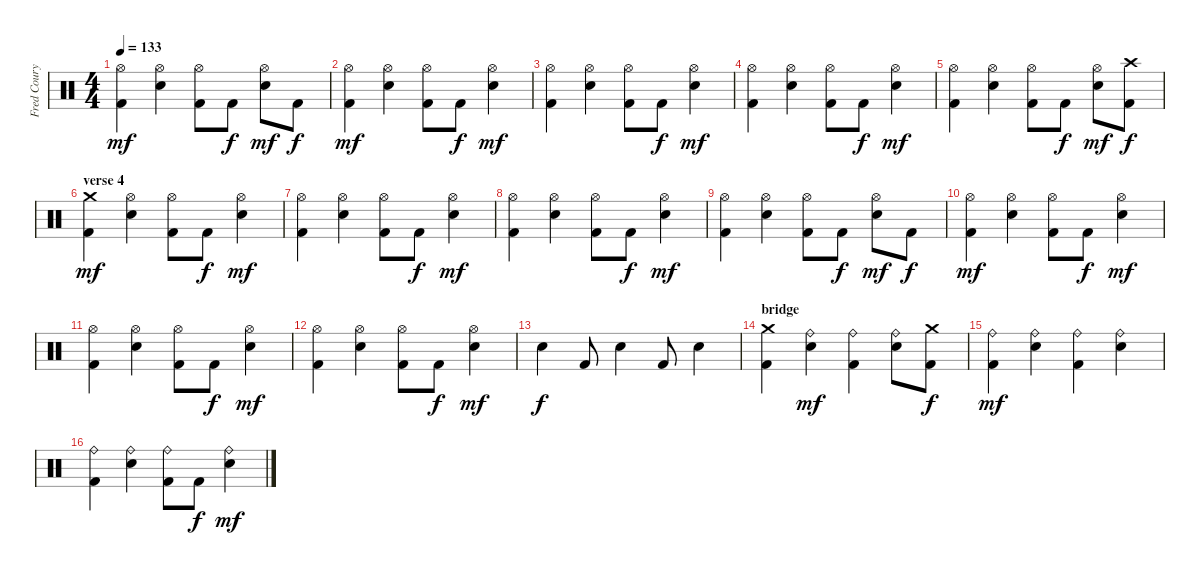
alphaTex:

\track ("Fred Coury" "Fred Coury") {instrument percussion}
\staff {score}
\articulation defaults
\ts (4 4)
\tempo 133
\clef neutral
\ks c
("Kick (hit) 2" "Hi-Hat (open)").4{dy mf} ("Hi-Hat (open)" "Snare (hit) 2").4 ("Kick (hit) 2" "Hi-Hat (open)").8 "Kick (hit) 2".8{dy f} ("Hi-Hat (open)" "Snare (hit) 2").8{dy mf} "Kick (hit) 2".8{dy f} |
("Kick (hit) 2" "Hi-Hat (open)").4{dy mf} ("Hi-Hat (open)" "Snare (hit) 2").4 ("Kick (hit) 2" "Hi-Hat (open)").8 "Kick (hit) 2".8{dy f} ("Hi-Hat (open)" "Snare (hit) 2").4{dy mf} |
("Kick (hit) 2" "Hi-Hat (open)").4 ("Hi-Hat (open)" "Snare (hit) 2").4 ("Kick (hit) 2" "Hi-Hat (open)").8 "Kick (hit) 2".8{dy f} ("Hi-Hat (open)" "Snare (hit) 2").4{dy mf} |
("Kick (hit) 2" "Hi-Hat (open)").4 ("Hi-Hat (open)" "Snare (hit) 2").4 ("Kick (hit) 2" "Hi-Hat (open)").8 "Kick (hit) 2".8{dy f} ("Hi-Hat (open)" "Snare (hit) 2").4{dy mf} |
("Kick (hit) 2" "Hi-Hat (open)").4 ("Hi-Hat (open)" "Snare (hit) 2").4 ("Kick (hit) 2" "Hi-Hat (open)").8 "Kick (hit) 2".8{dy f} ("Hi-Hat (open)" "Snare (hit) 2").8{dy mf} ("Kick (hit) 2" "Crash high (hit)").8{dy f} |
\section ("" "verse 4")
("Kick (hit) 2" "Crash medium (hit)").4{dy mf} ("Hi-Hat (open)" "Snare (hit) 2").4 ("Kick (hit) 2" "Hi-Hat (open)").8 "Kick (hit) 2".8{dy f} ("Hi-Hat (open)" "Snare (hit) 2").4{dy mf} |
("Kick (hit) 2" "Hi-Hat (open)").4 ("Hi-Hat (open)" "Snare (hit) 2").4 ("Kick (hit) 2" "Hi-Hat (open)").8 "Kick (hit) 2".8{dy f} ("Hi-Hat (open)" "Snare (hit) 2").4{dy mf} |
("Kick (hit) 2" "Hi-Hat (open)").4 ("Hi-Hat (open)" "Snare (hit) 2").4 ("Kick (hit) 2" "Hi-Hat (open)").8 "Kick (hit) 2".8{dy f} ("Hi-Hat (open)" "Snare (hit) 2").4{dy mf} |
("Kick (hit) 2" "Hi-Hat (open)").4 ("Hi-Hat (open)" "Snare (hit) 2").4 ("Kick (hit) 2" "Hi-Hat (open)").8 "Kick (hit) 2".8{dy f} ("Hi-Hat (open)" "Snare (hit) 2").8{dy mf} "Kick (hit) 2".8{dy f} |
("Kick (hit) 2" "Hi-Hat (open)").4{dy mf} ("Hi-Hat (open)" "Snare (hit) 2").4 ("Kick (hit) 2" "Hi-Hat (open)").8 "Kick (hit) 2".8{dy f} ("Hi-Hat (open)" "Snare (hit) 2").4{dy mf} |
("Kick (hit) 2" "Hi-Hat (open)").4 ("Hi-Hat (open)" "Snare (hit) 2").4 ("Kick (hit) 2" "Hi-Hat (open)").8 "Kick (hit) 2".8{dy f} ("Hi-Hat (open)" "Snare (hit) 2").4{dy mf} |
("Kick (hit) 2" "Hi-Hat (open)").4 ("Hi-Hat (open)" "Snare (hit) 2").4 ("Kick (hit) 2" "Hi-Hat (open)").8 "Kick (hit) 2".8{dy f} ("Hi-Hat (open)" "Snare (hit) 2").4{dy mf} |
"Snare (hit) 2".4{dy f} "Kick (hit) 2".8 "Snare (hit) 2".4 "Kick (hit) 2".8 "Snare (hit) 2".4 |
\section ("" "bridge")
("Kick (hit) 2" "Crash medium (hit)").4 ("Ride (bell)" "Snare (hit) 2").4{dy mf} ("Kick (hit) 2" "Ride (bell)").4 ("Ride (bell)" "Snare (hit) 2").8 ("Kick (hit) 2" "Crash medium (hit)").8{dy f} |
("Kick (hit) 2" "Ride (bell)").4{dy mf} ("Ride (bell)" "Snare (hit) 2").4 ("Kick (hit) 2" "Ride (bell)").4 ("Ride (bell)" "Snare (hit) 2").4 |
("Kick (hit) 2" "Ride (bell)").4 ("Ride (bell)" "Snare (hit) 2").4 ("Kick (hit) 2" "Ride (bell)").8 "Kick (hit) 2".8{dy f} ("Ride (bell)" "Snare (hit) 2").4{dy mf}
